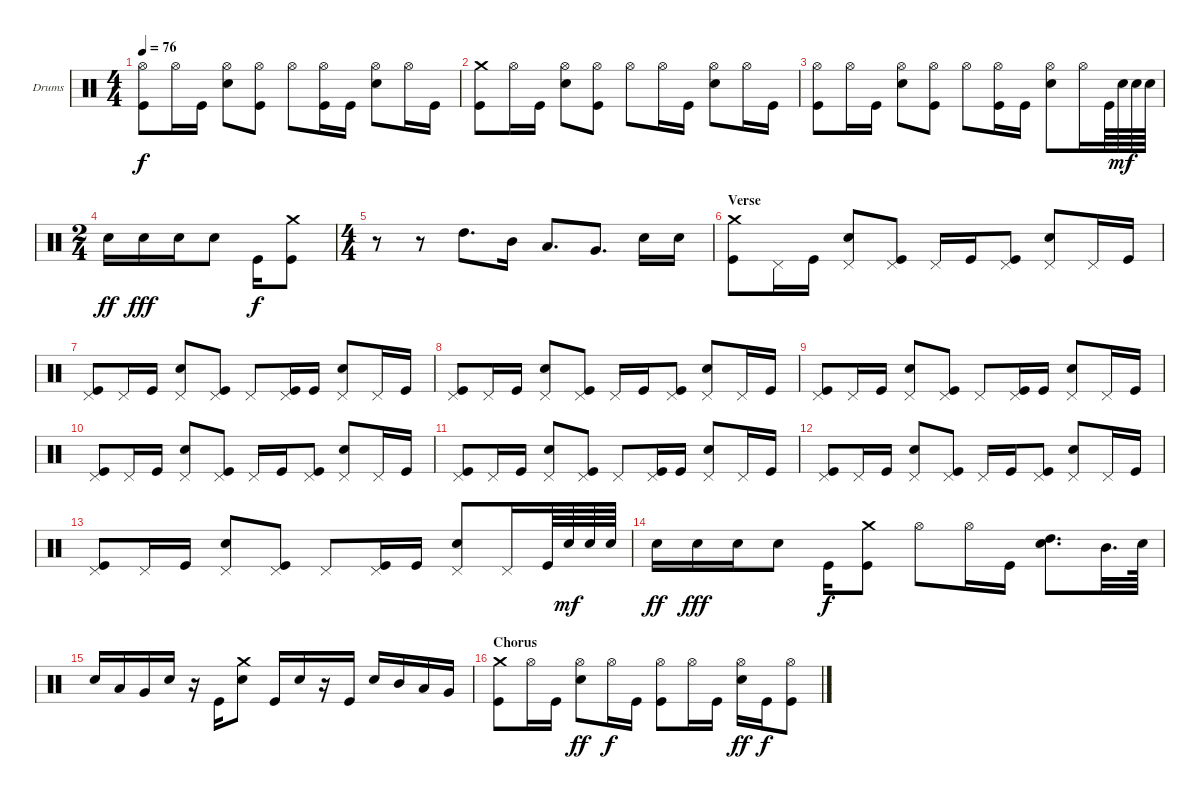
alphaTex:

\defaultSystemsLayout 4
\bracketExtendMode nobrackets
\firstSystemTrackNameOrientation horizontal
\otherSystemsTrackNameOrientation horizontal
\track ("Dave Krusen" "Drums") {instrument percussion}
\staff {score}
\articulation defaults
\ts (4 4)
\tempo 76
\clef neutral
\ks c
("Hi-Hat (open)" "Kick (hit)").8{dy f} "Hi-Hat (open)".16 "Kick (hit)".16 ("Hi-Hat (open)" "Snare (hit) 2").8 ("Hi-Hat (open)" "Kick (hit)").8 "Hi-Hat (open)".8 ("Hi-Hat (open)" "Kick (hit)").16 "Kick (hit)".16 ("Hi-Hat (open)" "Snare (hit) 2").8 "Hi-Hat (open)".16 "Kick (hit)".16 |
("Crash medium (hit)" "Kick (hit)").8 "Hi-Hat (open)".16 "Kick (hit)".16 ("Hi-Hat (open)" "Snare (hit) 2").8 ("Hi-Hat (open)" "Kick (hit)").8 "Hi-Hat (open)".8 "Hi-Hat (open)".16 "Kick (hit)".16 ("Hi-Hat (open)" "Snare (hit) 2").8 "Hi-Hat (open)".16 "Kick (hit)".16 |
("Hi-Hat (open)" "Kick (hit)").8 "Hi-Hat (open)".16 "Kick (hit)".16 ("Hi-Hat (open)" "Snare (hit) 2").8 ("Hi-Hat (open)" "Kick (hit)").8 "Hi-Hat (open)".8 ("Hi-Hat (open)" "Kick (hit)").16 "Kick (hit)".16 ("Hi-Hat (open)" "Snare (hit) 2").8 "Hi-Hat (open)".16 "Kick (hit)".64 "Snare (hit) 2".64{dy mf} "Snare (hit) 2".64 "Snare (hit) 2".64 |
\ts (2 4)
"Snare (hit) 2".16{dy ff} "Snare (hit) 2".16{dy fff} "Snare (hit) 2".16 "Snare (hit) 2".8 "Kick (hit)".16{dy f} ("Kick (hit)" "Crash medium (hit)").8 |
\ts (4 4)
r.8 r.8 "High Tom (hit)".8{d} "Mid Tom (hit)".16 "Low Tom (hit)".8{d} "Very Low Tom (hit)".8{d} "Snare (hit) 2".16 "Snare (hit) 2".16 |
\section ("" "Verse")
("Crash medium (hit)" "Kick (hit)").8 "Pedal Hi-Hat (hit)".16 "Kick (hit)".16 ("Pedal Hi-Hat (hit)" "Snare (hit) 2").8 ("Pedal Hi-Hat (hit)" "Kick (hit)").8 "Pedal Hi-Hat (hit)".16 "Kick (hit)".16 ("Pedal Hi-Hat (hit)" "Kick (hit)").8 ("Pedal Hi-Hat (hit)" "Snare (hit) 2").8 "Pedal Hi-Hat (hit)".16 "Kick (hit)".16 |
("Pedal Hi-Hat (hit)" "Kick (hit)").8 "Pedal Hi-Hat (hit)".16 "Kick (hit)".16 ("Pedal Hi-Hat (hit)" "Snare (hit) 2").8 ("Pedal Hi-Hat (hit)" "Kick (hit)").8 "Pedal Hi-Hat (hit)".8 ("Pedal Hi-Hat (hit)" "Kick (hit)").16 "Kick (hit)".16 ("Pedal Hi-Hat (hit)" "Snare (hit) 2").8 "Pedal Hi-Hat (hit)".16 "Kick (hit)".16 |
("Pedal Hi-Hat (hit)" "Kick (hit)").8 "Pedal Hi-Hat (hit)".16 "Kick (hit)".16 ("Pedal Hi-Hat (hit)" "Snare (hit) 2").8 ("Pedal Hi-Hat (hit)" "Kick (hit)").8 "Pedal Hi-Hat (hit)".16 "Kick (hit)".16 ("Pedal Hi-Hat (hit)" "Kick (hit)").8 ("Pedal Hi-Hat (hit)" "Snare (hit) 2").8 "Pedal Hi-Hat (hit)".16 "Kick (hit)".16 |
("Pedal Hi-Hat (hit)" "Kick (hit)").8 "Pedal Hi-Hat (hit)".16 "Kick (hit)".16 ("Pedal Hi-Hat (hit)" "Snare (hit) 2").8 ("Pedal Hi-Hat (hit)" "Kick (hit)").8 "Pedal Hi-Hat (hit)".8 ("Pedal Hi-Hat (hit)" "Kick (hit)").16 "Kick (hit)".16 ("Pedal Hi-Hat (hit)" "Snare (hit) 2").8 "Pedal Hi-Hat (hit)".16 "Kick (hit)".16 |
("Pedal Hi-Hat (hit)" "Kick (hit)").8 "Pedal Hi-Hat (hit)".16 "Kick (hit)".16 ("Pedal Hi-Hat (hit)" "Snare (hit) 2").8 ("Pedal Hi-Hat (hit)" "Kick (hit)").8 "Pedal Hi-Hat (hit)".16 "Kick (hit)".16 ("Pedal Hi-Hat (hit)" "Kick (hit)").8 ("Pedal Hi-Hat (hit)" "Snare (hit) 2").8 "Pedal Hi-Hat (hit)".16 "Kick (hit)".16 |
("Pedal Hi-Hat (hit)" "Kick (hit)").8 "Pedal Hi-Hat (hit)".16 "Kick (hit)".16 ("Pedal Hi-Hat (hit)" "Snare (hit) 2").8 ("Pedal Hi-Hat (hit)" "Kick (hit)").8 "Pedal Hi-Hat (hit)".8 ("Pedal Hi-Hat (hit)" "Kick (hit)").16 "Kick (hit)".16 ("Pedal Hi-Hat (hit)" "Snare (hit) 2").8 "Pedal Hi-Hat (hit)".16 "Kick (hit)".16 |
("Pedal Hi-Hat (hit)" "Kick (hit)").8 "Pedal Hi-Hat (hit)".16 "Kick (hit)".16 ("Pedal Hi-Hat (hit)" "Snare (hit) 2").8 ("Pedal Hi-Hat (hit)" "Kick (hit)").8 "Pedal Hi-Hat (hit)".16 "Kick (hit)".16 ("Pedal Hi-Hat (hit)" "Kick (hit)").8 ("Pedal Hi-Hat (hit)" "Snare (hit) 2").8 "Pedal Hi-Hat (hit)".16 "Kick (hit)".16 |
("Pedal Hi-Hat (hit)" "Kick (hit)").8 "Pedal Hi-Hat (hit)".16 "Kick (hit)".16 ("Pedal Hi-Hat (hit)" "Snare (hit) 2").8 ("Pedal Hi-Hat (hit)" "Kick (hit)").8 "Pedal Hi-Hat (hit)".8 ("Pedal Hi-Hat (hit)" "Kick (hit)").16 "Kick (hit)".16 ("Pedal Hi-Hat (hit)" "Snare (hit) 2").8 "Pedal Hi-Hat (hit)".16 "Kick (hit)".64 "Snare (hit) 2".64{dy mf} "Snare (hit) 2".64 "Snare (hit) 2".64 |
"Snare (hit) 2".16{dy ff} "Snare (hit) 2".16{dy fff} "Snare (hit) 2".16 "Snare (hit) 2".8 "Kick (hit)".16{dy f} ("Kick (hit)" "Crash medium (hit)").8 "Hi-Hat (open)".8 "Hi-Hat (open)".16 "Kick (hit)".16 ("High Tom (hit)" "Snare (hit) 2").8{d} "Mid Tom (hit)".32{d} "Snare (hit) 2".64 |
"Snare (hit) 2".16 "Low Tom (hit)".16 "Very Low Tom (hit)".16 "Snare (hit) 2".16 r.16 "Kick (hit)".16 ("Crash medium (hit)" "Snare (hit) 2").8 "Kick (hit)".16 "Snare (hit) 2".16 r.16 "Kick (hit)".16 "Snare (hit) 2".16 "Mid Tom (hit)".16 "Low Tom (hit)".16 "Very Low Tom (hit)".16 |
\section ("" "Chorus")
("Crash medium (hit)" "Kick (hit)").8 "Hi-Hat (open)".16 "Kick (hit)".16 ("Snare (hit) 2" "Hi-Hat (open)").8{dy ff} "Hi-Hat (open)".16{dy f} "Kick (hit)".16 ("Kick (hit)" "Hi-Hat (open)").8 "Hi-Hat (open)".16 "Kick (hit)".16 ("Snare (hit) 2" "Hi-Hat (open)").16{dy ff} "Kick (hit)".16{dy f} ("Kick (hit)" "Hi-Hat (open)").8
